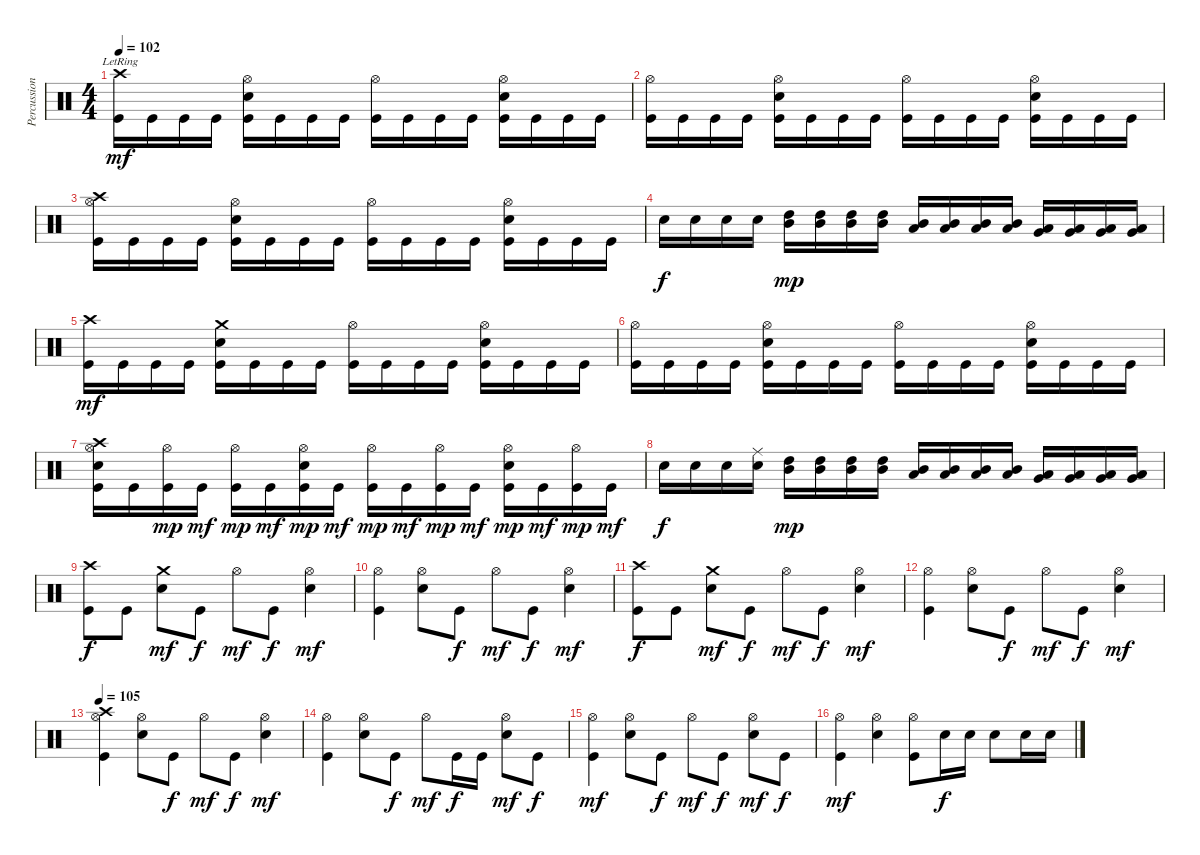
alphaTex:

\track ("Percussions" "Percussion") {instrument percussion}
\staff {score}
\articulation defaults
\ts (4 4)
\tempo 102
\clef neutral
\ks c
("Kick (hit)"{lr} "Crash high (hit)").16{dy mf} "Kick (hit)".16 "Kick (hit)".16 "Kick (hit)".16 ("Kick (hit)" "Electric Snare (hit)" "Hi-Hat (open)").16 "Kick (hit)".16 "Kick (hit)".16 "Kick (hit)".16 ("Kick (hit)" "Hi-Hat (open)").16 "Kick (hit)".16 "Kick (hit)".16 "Kick (hit)".16 ("Kick (hit)" "Electric Snare (hit)" "Hi-Hat (open)").16 "Kick (hit)".16 "Kick (hit)".16 "Kick (hit)".16 |
("Kick (hit)" "Hi-Hat (open)").16 "Kick (hit)".16 "Kick (hit)".16 "Kick (hit)".16 ("Kick (hit)" "Electric Snare (hit)" "Hi-Hat (open)").16 "Kick (hit)".16 "Kick (hit)".16 "Kick (hit)".16 ("Kick (hit)" "Hi-Hat (open)").16 "Kick (hit)".16 "Kick (hit)".16 "Kick (hit)".16 ("Kick (hit)" "Electric Snare (hit)" "Hi-Hat (open)").16 "Kick (hit)".16 "Kick (hit)".16 "Kick (hit)".16 |
("Kick (hit)" "Hi-Hat (open)" "Crash high (hit)").16 "Kick (hit)".16 "Kick (hit)".16 "Kick (hit)".16 ("Kick (hit)" "Electric Snare (hit)" "Hi-Hat (open)").16 "Kick (hit)".16 "Kick (hit)".16 "Kick (hit)".16 ("Kick (hit)" "Hi-Hat (open)").16 "Kick (hit)".16 "Kick (hit)".16 "Kick (hit)".16 ("Kick (hit)" "Electric Snare (hit)" "Hi-Hat (open)").16 "Kick (hit)".16 "Kick (hit)".16 "Kick (hit)".16 |
"Electric Snare (hit)".16{dy f} "Electric Snare (hit)".16 "Electric Snare (hit)".16 "Electric Snare (hit)".16 ("High Tom (hit)" "Mid Tom (hit)").16{dy mp} ("High Tom (hit)" "Mid Tom (hit)").16 ("High Tom (hit)" "Mid Tom (hit)").16 ("High Tom (hit)" "Mid Tom (hit)").16 ("Mid Tom (hit)" "Low Tom (hit)").16 ("Mid Tom (hit)" "Low Tom (hit)").16 ("Mid Tom (hit)" "Low Tom (hit)").16 ("Mid Tom (hit)" "Low Tom (hit)").16 ("Low Tom (hit)" "Very Low Tom (hit)").16 ("Low Tom (hit)" "Very Low Tom (hit)").16 ("Low Tom (hit)" "Very Low Tom (hit)").16 ("Low Tom (hit)" "Very Low Tom (hit)").16 |
("Kick (hit)" "Crash high (hit)").16{dy mf} "Kick (hit)".16 "Kick (hit)".16 "Kick (hit)".16 ("Kick (hit)" "Electric Snare (hit)" "Crash medium (hit)").16 "Kick (hit)".16 "Kick (hit)".16 "Kick (hit)".16 ("Kick (hit)" "Hi-Hat (open)").16 "Kick (hit)".16 "Kick (hit)".16 "Kick (hit)".16 ("Kick (hit)" "Electric Snare (hit)" "Hi-Hat (open)").16 "Kick (hit)".16 "Kick (hit)".16 "Kick (hit)".16 |
("Kick (hit)" "Hi-Hat (open)").16 "Kick (hit)".16 "Kick (hit)".16 "Kick (hit)".16 ("Kick (hit)" "Electric Snare (hit)" "Hi-Hat (open)").16 "Kick (hit)".16 "Kick (hit)".16 "Kick (hit)".16 ("Kick (hit)" "Hi-Hat (open)").16 "Kick (hit)".16 "Kick (hit)".16 "Kick (hit)".16 ("Kick (hit)" "Electric Snare (hit)" "Hi-Hat (open)").16 "Kick (hit)".16 "Kick (hit)".16 "Kick (hit)".16 |
("Kick (hit)" "Electric Snare (hit)" "Hi-Hat (open)" "Crash high (hit)").16 "Kick (hit)".16 ("Kick (hit)" "Hi-Hat (open)").16{dy mp} "Kick (hit)".16{dy mf} ("Kick (hit)" "Hi-Hat (open)").16{dy mp} "Kick (hit)".16{dy mf} ("Kick (hit)" "Electric Snare (hit)" "Hi-Hat (open)").16{dy mp} "Kick (hit)".16{dy mf} ("Kick (hit)" "Hi-Hat (open)").16{dy mp} "Kick (hit)".16{dy mf} ("Kick (hit)" "Hi-Hat (open)").16{dy mp} "Kick (hit)".16{dy mf} ("Kick (hit)" "Electric Snare (hit)" "Hi-Hat (open)").16{dy mp} "Kick (hit)".16{dy mf} ("Kick (hit)" "Hi-Hat (open)").16{dy mp} "Kick (hit)".16{dy mf} |
"Electric Snare (hit)".16{dy f} "Electric Snare (hit)".16 "Electric Snare (hit)".16 ("Ride (middle)" "Electric Snare (hit)").16 ("High Tom (hit)" "Mid Tom (hit)").16{dy mp} ("High Tom (hit)" "Mid Tom (hit)").16 ("High Tom (hit)" "Mid Tom (hit)").16 ("High Tom (hit)" "Mid Tom (hit)").16 ("Mid Tom (hit)" "Low Tom (hit)").16 ("Mid Tom (hit)" "Low Tom (hit)").16 ("Mid Tom (hit)" "Low Tom (hit)").16 ("Mid Tom (hit)" "Low Tom (hit)").16 ("Low Tom (hit)" "Very Low Tom (hit)").16 ("Low Tom (hit)" "Very Low Tom (hit)").16 ("Low Tom (hit)" "Very Low Tom (hit)").16 ("Low Tom (hit)" "Very Low Tom (hit)").16 |
("Kick (hit)" "Crash high (hit)").8{dy f} "Kick (hit)".8 ("Electric Snare (hit)" "Crash medium (hit)").8{dy mf} "Kick (hit)".8{dy f} "Hi-Hat (open)".8{dy mf} "Kick (hit)".8{dy f} ("Electric Snare (hit)" "Hi-Hat (open)").4{dy mf} |
("Kick (hit)" "Hi-Hat (open)").4 ("Electric Snare (hit)" "Hi-Hat (open)").8 "Kick (hit)".8{dy f} "Hi-Hat (open)".8{dy mf} "Kick (hit)".8{dy f} ("Electric Snare (hit)" "Hi-Hat (open)").4{dy mf} |
("Kick (hit)" "Crash high (hit)").8{dy f} "Kick (hit)".8 ("Electric Snare (hit)" "Crash medium (hit)").8{dy mf} "Kick (hit)".8{dy f} "Hi-Hat (open)".8{dy mf} "Kick (hit)".8{dy f} ("Electric Snare (hit)" "Hi-Hat (open)").4{dy mf} |
("Kick (hit)" "Hi-Hat (open)").4 ("Electric Snare (hit)" "Hi-Hat (open)").8 "Kick (hit)".8{dy f} "Hi-Hat (open)".8{dy mf} "Kick (hit)".8{dy f} ("Electric Snare (hit)" "Hi-Hat (open)").4{dy mf} |
\tempo 105
("Kick (hit)" "Hi-Hat (open)" "Crash high (hit)").4 ("Electric Snare (hit)" "Hi-Hat (open)").8 "Kick (hit)".8{dy f} "Hi-Hat (open)".8{dy mf} "Kick (hit)".8{dy f} ("Electric Snare (hit)" "Hi-Hat (open)").4{dy mf} |
("Kick (hit)" "Hi-Hat (open)").4 ("Electric Snare (hit)" "Hi-Hat (open)").8 "Kick (hit)".8{dy f} "Hi-Hat (open)".8{dy mf} "Kick (hit)".16{dy f} "Kick (hit)".16 ("Electric Snare (hit)" "Hi-Hat (open)").8{dy mf} "Kick (hit)".8{dy f} |
("Kick (hit)" "Hi-Hat (open)").4{dy mf} ("Electric Snare (hit)" "Hi-Hat (open)").8 "Kick (hit)".8{dy f} "Hi-Hat (open)".8{dy mf} "Kick (hit)".8{dy f} ("Electric Snare (hit)" "Hi-Hat (open)").8{dy mf} "Kick (hit)".8{dy f} |
("Kick (hit)" "Hi-Hat (open)").4{dy mf} ("Electric Snare (hit)" "Hi-Hat (open)").4 ("Kick (hit)" "Hi-Hat (open)").8 "Electric Snare (hit)".16{dy f} "Electric Snare (hit)".16 "Electric Snare (hit)".8 "Electric Snare (hit)".16 "Electric Snare (hit)".16
